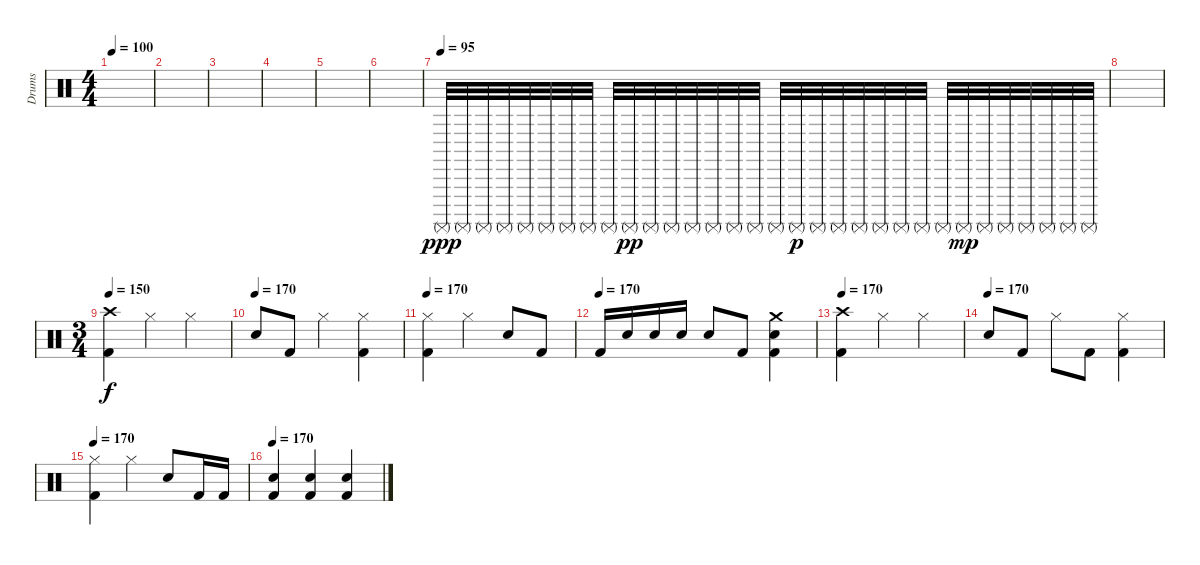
\track ("Drums" "Drums") {instrument percussion}
\staff {score}
\articulation defaults
\ts (4 4)
\tempo 155
\tempo 100
\clef neutral
\ks c
|
|
|
|
|
|
\tempo (95)
"Surdo (mute)".32{dy ppp} "Surdo (mute)".32 "Surdo (mute)".32 "Surdo (mute)".32 "Surdo (mute)".32 "Surdo (mute)".32 "Surdo (mute)".32 "Surdo (mute)".32 "Surdo (mute)".32 "Surdo (mute)".32{dy pp} "Surdo (mute)".32 "Surdo (mute)".32 "Surdo (mute)".32 "Surdo (mute)".32 "Surdo (mute)".32 "Surdo (mute)".32 "Surdo (mute)".32 "Surdo (mute)".32{dy p} "Surdo (mute)".32 "Surdo (mute)".32 "Surdo (mute)".32 "Surdo (mute)".32 "Surdo (mute)".32 "Surdo (mute)".32 "Surdo (mute)".32 "Surdo (mute)".32{dy mp} "Surdo (mute)".32 "Surdo (mute)".32 "Surdo (mute)".32 "Surdo (mute)".32 "Surdo (mute)".32 "Surdo (mute)".32 |
|
\ts (3 4)
\tempo 170
\tempo 150
("Crash high (hit)" "Kick (hit) 2").4{dy f} "Hi-Hat (closed)".4 "Hi-Hat (closed)".4 |
\tempo (170)
"Electric Snare (hit)".8 "Kick (hit) 2".8 "Hi-Hat (closed)".4 ("Hi-Hat (closed)" "Kick (hit) 2").4 |
\tempo 170
("Hi-Hat (closed)" "Kick (hit) 2").4 "Hi-Hat (closed)".4 "Electric Snare (hit)".8 "Kick (hit) 2".8 |
\tempo (170)
"Kick (hit) 2".16 "Electric Snare (hit)".16 "Electric Snare (hit)".16 "Electric Snare (hit)".16 "Electric Snare (hit)".8 "Kick (hit) 2".8 ("Crash medium (hit)" "Electric Snare (hit)" "Kick (hit) 2").4 |
\tempo 170
("Crash high (hit)" "Kick (hit) 2").4 "Hi-Hat (closed)".4 "Hi-Hat (closed)".4 |
\tempo (170)
"Electric Snare (hit)".8 "Kick (hit) 2".8 "Hi-Hat (closed)".8 "Kick (hit) 2".8 ("Hi-Hat (closed)" "Kick (hit) 2").4 |
\tempo 170
("Hi-Hat (closed)" "Kick (hit) 2").4 "Hi-Hat (closed)".4 "Electric Snare (hit)".8 "Kick (hit) 2".16 "Kick (hit) 2".16 |
\tempo 170
("Electric Snare (hit)" "Kick (hit) 2").4 ("Electric Snare (hit)" "Kick (hit) 2").4 ("Electric Snare (hit)" "Kick (hit) 2").4
